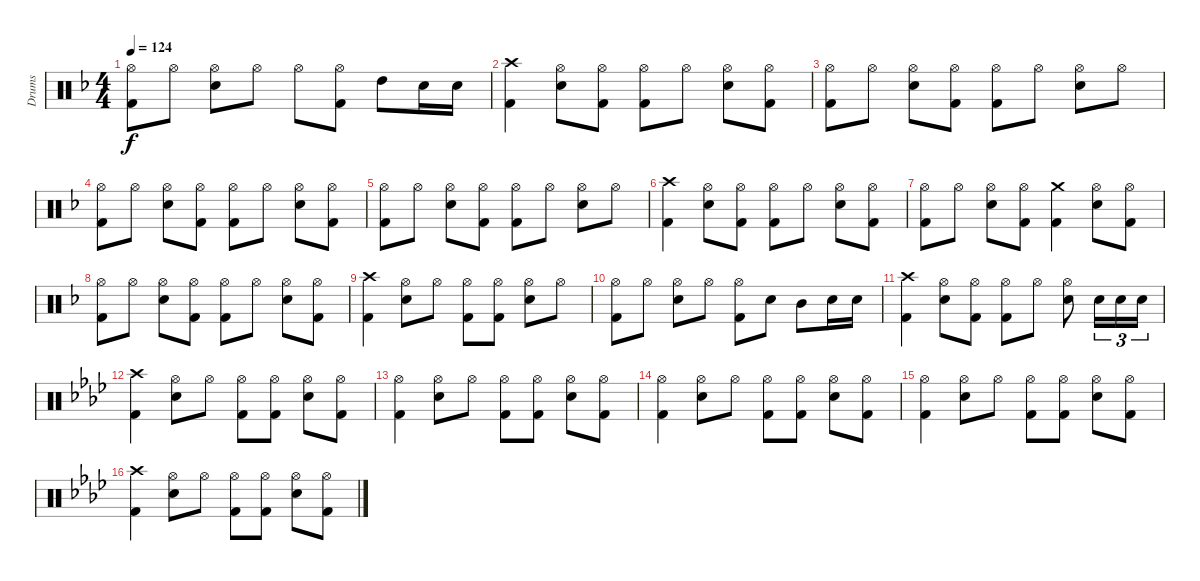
\track ("Drums" "Drums") {instrument percussion}
\staff {score}
\articulation defaults
\ts (4 4)
\tempo 124
\clef neutral
\ks dminor
("Kick (hit) 2" "Hi-Hat (open)").8{dy f} "Hi-Hat (open)".8 ("Snare (hit) 2" "Hi-Hat (open)").8 "Hi-Hat (open)".8 "Hi-Hat (open)".8 ("Kick (hit) 2" "Hi-Hat (open)").8 "High Tom (hit)".8 "Snare (hit) 2".16 "Snare (hit) 2".16 |
("Kick (hit) 2" "Crash high (hit)").4 ("Snare (hit) 2" "Hi-Hat (open)").8 ("Kick (hit) 2" "Hi-Hat (open)").8 ("Kick (hit) 2" "Hi-Hat (open)").8 "Hi-Hat (open)".8 ("Snare (hit) 2" "Hi-Hat (open)").8 ("Kick (hit) 2" "Hi-Hat (open)").8 |
("Kick (hit) 2" "Hi-Hat (open)").8 "Hi-Hat (open)".8 ("Snare (hit) 2" "Hi-Hat (open)").8 ("Kick (hit) 2" "Hi-Hat (open)").8 ("Kick (hit) 2" "Hi-Hat (open)").8 "Hi-Hat (open)".8 ("Snare (hit) 2" "Hi-Hat (open)").8 "Hi-Hat (open)".8 |
("Kick (hit) 2" "Hi-Hat (open)").8 "Hi-Hat (open)".8 ("Snare (hit) 2" "Hi-Hat (open)").8 ("Kick (hit) 2" "Hi-Hat (open)").8 ("Kick (hit) 2" "Hi-Hat (open)").8 "Hi-Hat (open)".8 ("Snare (hit) 2" "Hi-Hat (open)").8 ("Kick (hit) 2" "Hi-Hat (open)").8 |
("Kick (hit) 2" "Hi-Hat (open)").8 "Hi-Hat (open)".8 ("Snare (hit) 2" "Hi-Hat (open)").8 ("Kick (hit) 2" "Hi-Hat (open)").8 ("Kick (hit) 2" "Hi-Hat (open)").8 "Hi-Hat (open)".8 ("Snare (hit) 2" "Hi-Hat (open)").8 "Hi-Hat (open)".8 |
("Kick (hit) 2" "Crash high (hit)").4 ("Snare (hit) 2" "Hi-Hat (open)").8 ("Kick (hit) 2" "Hi-Hat (open)").8 ("Kick (hit) 2" "Hi-Hat (open)").8 "Hi-Hat (open)".8 ("Snare (hit) 2" "Hi-Hat (open)").8 ("Kick (hit) 2" "Hi-Hat (open)").8 |
("Kick (hit) 2" "Hi-Hat (open)").8 "Hi-Hat (open)".8 ("Snare (hit) 2" "Hi-Hat (open)").8 ("Kick (hit) 2" "Hi-Hat (open)").8 ("Kick (hit) 2" "Crash medium (hit)").4 ("Snare (hit) 2" "Hi-Hat (open)").8 ("Kick (hit) 2" "Hi-Hat (open)").8 |
("Kick (hit) 2" "Hi-Hat (open)").8 "Hi-Hat (open)".8 ("Snare (hit) 2" "Hi-Hat (open)").8 ("Kick (hit) 2" "Hi-Hat (open)").8 ("Kick (hit) 2" "Hi-Hat (open)").8 "Hi-Hat (open)".8 ("Snare (hit) 2" "Hi-Hat (open)").8 ("Kick (hit) 2" "Hi-Hat (open)").8 |
("Kick (hit) 2" "Crash high (hit)").4 ("Snare (hit) 2" "Hi-Hat (open)").8 "Hi-Hat (open)".8 ("Kick (hit) 2" "Hi-Hat (open)").8 ("Kick (hit) 2" "Hi-Hat (open)").8 ("Snare (hit) 2" "Hi-Hat (open)").8 "Hi-Hat (open)".8 |
("Kick (hit) 2" "Hi-Hat (open)").8 "Hi-Hat (open)".8 ("Snare (hit) 2" "Hi-Hat (open)").8 "Hi-Hat (open)".8 ("Kick (hit) 2" "Hi-Hat (open)").8 "Snare (hit) 2".8 "Mid Tom (hit)".8 "Snare (hit) 2".16 "Snare (hit) 2".16 |
("Kick (hit) 2" "Crash high (hit)").4 ("Snare (hit) 2" "Hi-Hat (open)").8 ("Kick (hit) 2" "Hi-Hat (open)").8 ("Kick (hit) 2" "Hi-Hat (open)").8 "Hi-Hat (open)".8 ("Snare (hit) 2" "Hi-Hat (open)").8 "Snare (hit) 2".16{tu (3 2)} "Snare (hit) 2".16{tu (3 2)} "Snare (hit) 2".16{tu (3 2)} |
\ks fminor
("Kick (hit) 2" "Crash high (hit)").4 ("Snare (hit) 2" "Hi-Hat (open)").8 "Hi-Hat (open)".8 ("Kick (hit) 2" "Hi-Hat (open)").8 ("Kick (hit) 2" "Hi-Hat (open)").8 ("Snare (hit) 2" "Hi-Hat (open)").8 ("Kick (hit) 2" "Hi-Hat (open)").8 |
("Kick (hit) 2" "Hi-Hat (open)").4 ("Snare (hit) 2" "Hi-Hat (open)").8 "Hi-Hat (open)".8 ("Kick (hit) 2" "Hi-Hat (open)").8 ("Kick (hit) 2" "Hi-Hat (open)").8 ("Snare (hit) 2" "Hi-Hat (open)").8 ("Kick (hit) 2" "Hi-Hat (open)").8 |
("Kick (hit) 2" "Hi-Hat (open)").4 ("Snare (hit) 2" "Hi-Hat (open)").8 "Hi-Hat (open)".8 ("Kick (hit) 2" "Hi-Hat (open)").8 ("Kick (hit) 2" "Hi-Hat (open)").8 ("Snare (hit) 2" "Hi-Hat (open)").8 ("Kick (hit) 2" "Hi-Hat (open)").8 |
("Kick (hit) 2" "Hi-Hat (open)").4 ("Snare (hit) 2" "Hi-Hat (open)").8 "Hi-Hat (open)".8 ("Kick (hit) 2" "Hi-Hat (open)").8 ("Kick (hit) 2" "Hi-Hat (open)").8 ("Snare (hit) 2" "Hi-Hat (open)").8 ("Kick (hit) 2" "Hi-Hat (open)").8 |
("Kick (hit) 2" "Crash high (hit)").4 ("Snare (hit) 2" "Hi-Hat (open)").8 "Hi-Hat (open)".8 ("Kick (hit) 2" "Hi-Hat (open)").8 ("Kick (hit) 2" "Hi-Hat (open)").8 ("Snare (hit) 2" "Hi-Hat (open)").8 ("Kick (hit) 2" "Hi-Hat (open)").8
